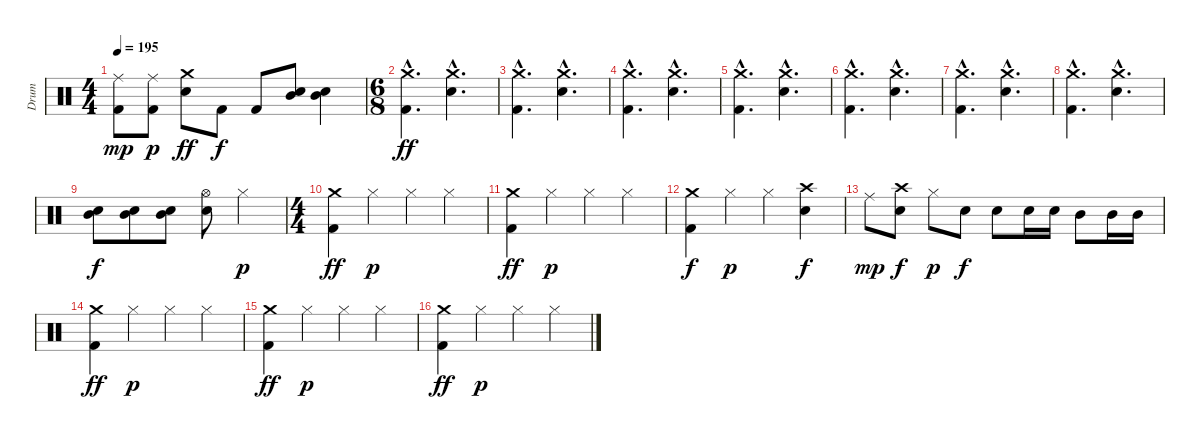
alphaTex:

\track ("Drum" "Drum") {instrument percussion}
\staff {score}
\articulation defaults
\ts (4 4)
\tempo 195
\clef neutral
\ks c
("Ride (middle)" "Kick (hit) 2").8{dy mp} ("Ride (middle)" "Kick (hit) 2").8{dy p} ("Crash medium (hit)" "Electric Snare (hit)").8{dy ff} "Kick (hit) 2".8{dy f} "Kick (hit) 2".8 ("Mid Tom (hit)" "Electric Snare (hit)").8 ("Mid Tom (hit)" "Electric Snare (hit)").4 |
\ts (6 8)
("Crash medium (hit)"{hac} "Kick (hit) 2"{hac}).4{d dy ff} ("Crash medium (hit)"{hac} "Electric Snare (hit)"{hac}).4{d} |
("Crash medium (hit)"{hac} "Kick (hit) 2"{hac}).4{d} ("Crash medium (hit)"{hac} "Electric Snare (hit)"{hac}).4{d} |
("Crash medium (hit)"{hac} "Kick (hit) 2"{hac}).4{d} ("Crash medium (hit)"{hac} "Electric Snare (hit)"{hac}).4{d} |
("Crash medium (hit)"{hac} "Kick (hit) 2"{hac}).4{d} ("Crash medium (hit)"{hac} "Electric Snare (hit)"{hac}).4{d} |
("Crash medium (hit)"{hac} "Kick (hit) 2"{hac}).4{d} ("Crash medium (hit)"{hac} "Electric Snare (hit)"{hac}).4{d} |
("Crash medium (hit)"{hac} "Kick (hit) 2"{hac}).4{d} ("Crash medium (hit)"{hac} "Electric Snare (hit)"{hac}).4{d} |
("Crash medium (hit)"{hac} "Kick (hit) 2"{hac}).4{d} ("Crash medium (hit)"{hac} "Electric Snare (hit)"{hac}).4{d} |
("Mid Tom (hit)" "Electric Snare (hit)").8{dy f} ("Mid Tom (hit)" "Electric Snare (hit)").8 ("Mid Tom (hit)" "Electric Snare (hit)").8 ("Hi-Hat (open)" "Electric Snare (hit)").8 "Hi-Hat (closed)".4{dy p} |
\ts (4 4)
("Crash medium (hit)" "Kick (hit) 2").4{dy ff} "Hi-Hat (closed)".4{dy p} "Hi-Hat (closed)".4 "Hi-Hat (closed)".4 |
("Crash medium (hit)" "Kick (hit) 2").4{dy ff} "Hi-Hat (closed)".4{dy p} "Hi-Hat (closed)".4 "Hi-Hat (closed)".4 |
("Crash medium (hit)" "Kick (hit) 2").4{dy f} "Hi-Hat (closed)".4{dy p} "Hi-Hat (closed)".4 ("Crash high (hit)" "Electric Snare (hit)").4{dy f} |
"Ride (middle)".8{dy mp} ("Crash high (hit)" "Electric Snare (hit)").8{dy f} "Hi-Hat (closed)".8{dy p} "Electric Snare (hit)".8{dy f} "Electric Snare (hit)".8 "Electric Snare (hit)".16 "Electric Snare (hit)".16 "Mid Tom (hit)".8 "Mid Tom (hit)".16 "Mid Tom (hit)".16 |
("Crash medium (hit)" "Kick (hit) 2").4{dy ff} "Hi-Hat (closed)".4{dy p} "Hi-Hat (closed)".4 "Hi-Hat (closed)".4 |
("Crash medium (hit)" "Kick (hit) 2").4{dy ff} "Hi-Hat (closed)".4{dy p} "Hi-Hat (closed)".4 "Hi-Hat (closed)".4 |
("Crash medium (hit)" "Kick (hit) 2").4{dy ff} "Hi-Hat (closed)".4{dy p} "Hi-Hat (closed)".4 "Hi-Hat (closed)".4
